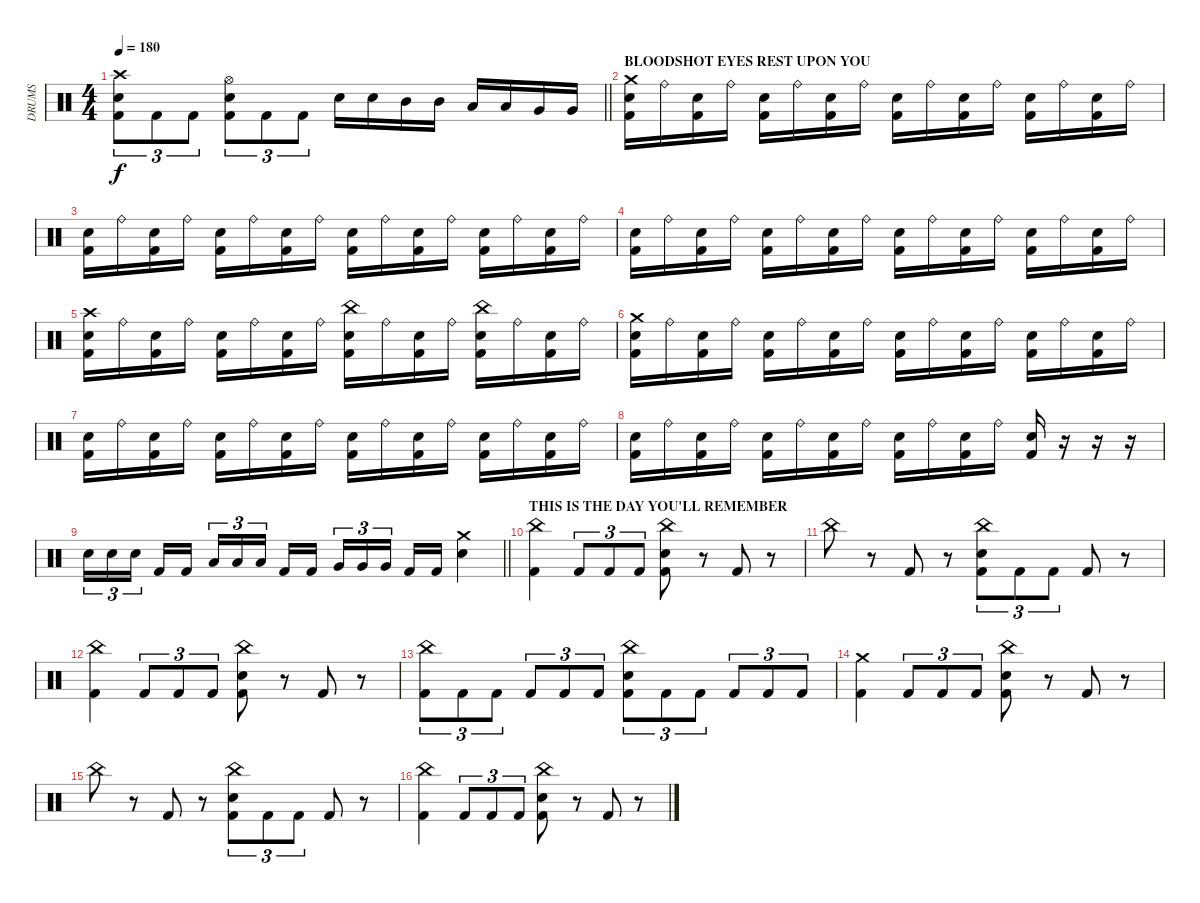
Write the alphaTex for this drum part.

\track ("DRUMS" "DRUMS") {instrument percussion}
\staff {score}
\articulation defaults
\ts (4 4)
\tempo 180
\clef neutral
\barLineRight lightlight
\ks c
("Crash high (hit)" "Electric Snare (hit)" "Kick (hit) 2").8{tu (3 2) dy f} "Kick (hit) 2".8{tu (3 2)} "Kick (hit) 2".8{tu (3 2)} ("Hi-Hat (open)" "Electric Snare (hit)" "Kick (hit) 2").8{tu (3 2)} "Kick (hit) 2".8{tu (3 2)} "Kick (hit) 2".8{tu (3 2)} "Electric Snare (hit)".16 "Electric Snare (hit)".16 "Mid Tom (hit)".16 "Mid Tom (hit)".16 "Low Tom (hit)".16 "Low Tom (hit)".16 "Very Low Tom (hit)".16 "Very Low Tom (hit)".16 |
\section ("" "BLOODSHOT EYES REST UPON YOU")
("Crash medium (hit)" "Electric Snare (hit)" "Kick (hit) 2").16 "Ride (bell)".16 ("Electric Snare (hit)" "Kick (hit) 2").16 "Ride (bell)".16 ("Electric Snare (hit)" "Kick (hit) 2").16 "Ride (bell)".16 ("Electric Snare (hit)" "Kick (hit) 2").16 "Ride (bell)".16 ("Electric Snare (hit)" "Kick (hit) 2").16 "Ride (bell)".16 ("Electric Snare (hit)" "Kick (hit) 2").16 "Ride (bell)".16 ("Electric Snare (hit)" "Kick (hit) 2").16 "Ride (bell)".16 ("Electric Snare (hit)" "Kick (hit) 2").16 "Ride (bell)".16 |
("Electric Snare (hit)" "Kick (hit) 2").16 "Ride (bell)".16 ("Electric Snare (hit)" "Kick (hit) 2").16 "Ride (bell)".16 ("Electric Snare (hit)" "Kick (hit) 2").16 "Ride (bell)".16 ("Electric Snare (hit)" "Kick (hit) 2").16 "Ride (bell)".16 ("Electric Snare (hit)" "Kick (hit) 2").16 "Ride (bell)".16 ("Electric Snare (hit)" "Kick (hit) 2").16 "Ride (bell)".16 ("Electric Snare (hit)" "Kick (hit) 2").16 "Ride (bell)".16 ("Electric Snare (hit)" "Kick (hit) 2").16 "Ride (bell)".16 |
("Electric Snare (hit)" "Kick (hit) 2").16 "Ride (bell)".16 ("Electric Snare (hit)" "Kick (hit) 2").16 "Ride (bell)".16 ("Electric Snare (hit)" "Kick (hit) 2").16 "Ride (bell)".16 ("Electric Snare (hit)" "Kick (hit) 2").16 "Ride (bell)".16 ("Electric Snare (hit)" "Kick (hit) 2").16 "Ride (bell)".16 ("Electric Snare (hit)" "Kick (hit) 2").16 "Ride (bell)".16 ("Electric Snare (hit)" "Kick (hit) 2").16 "Ride (bell)".16 ("Electric Snare (hit)" "Kick (hit) 2").16 "Ride (bell)".16 |
("Crash high (hit)" "Electric Snare (hit)" "Kick (hit) 2").16 "Ride (bell)".16 ("Electric Snare (hit)" "Kick (hit) 2").16 "Ride (bell)".16 ("Electric Snare (hit)" "Kick (hit) 2").16 "Ride (bell)".16 ("Electric Snare (hit)" "Kick (hit) 2").16 "Ride (bell)".16 ("China (hit)" "Electric Snare (hit)" "Kick (hit) 2").16 "Ride (bell)".16 ("Electric Snare (hit)" "Kick (hit) 2").16 "Ride (bell)".16 ("China (hit)" "Electric Snare (hit)" "Kick (hit) 2").16 "Ride (bell)".16 ("Electric Snare (hit)" "Kick (hit) 2").16 "Ride (bell)".16 |
("Crash medium (hit)" "Electric Snare (hit)" "Kick (hit) 2").16 "Ride (bell)".16 ("Electric Snare (hit)" "Kick (hit) 2").16 "Ride (bell)".16 ("Electric Snare (hit)" "Kick (hit) 2").16 "Ride (bell)".16 ("Electric Snare (hit)" "Kick (hit) 2").16 "Ride (bell)".16 ("Electric Snare (hit)" "Kick (hit) 2").16 "Ride (bell)".16 ("Electric Snare (hit)" "Kick (hit) 2").16 "Ride (bell)".16 ("Electric Snare (hit)" "Kick (hit) 2").16 "Ride (bell)".16 ("Electric Snare (hit)" "Kick (hit) 2").16 "Ride (bell)".16 |
("Electric Snare (hit)" "Kick (hit) 2").16 "Ride (bell)".16 ("Electric Snare (hit)" "Kick (hit) 2").16 "Ride (bell)".16 ("Electric Snare (hit)" "Kick (hit) 2").16 "Ride (bell)".16 ("Electric Snare (hit)" "Kick (hit) 2").16 "Ride (bell)".16 ("Electric Snare (hit)" "Kick (hit) 2").16 "Ride (bell)".16 ("Electric Snare (hit)" "Kick (hit) 2").16 "Ride (bell)".16 ("Electric Snare (hit)" "Kick (hit) 2").16 "Ride (bell)".16 ("Electric Snare (hit)" "Kick (hit) 2").16 "Ride (bell)".16 |
("Electric Snare (hit)" "Kick (hit) 2").16 "Ride (bell)".16 ("Electric Snare (hit)" "Kick (hit) 2").16 "Ride (bell)".16 ("Electric Snare (hit)" "Kick (hit) 2").16 "Ride (bell)".16 ("Electric Snare (hit)" "Kick (hit) 2").16 "Ride (bell)".16 ("Electric Snare (hit)" "Kick (hit) 2").16 "Ride (bell)".16 ("Electric Snare (hit)" "Kick (hit) 2").16 "Ride (bell)".16 ("Electric Snare (hit)" "Kick (hit) 2").16 r.16 r.16 r.16 |
\barLineRight lightlight "Electric Snare (hit)".16{tu (3 2)} "Electric Snare (hit)".16{tu (3 2)} "Electric Snare (hit)".16{tu (3 2) beam splitsecondary} "Kick (hit) 2".16 "Kick (hit) 2".16 "Low Tom (hit)".16{tu (3 2)} "Low Tom (hit)".16{tu (3 2)} "Low Tom (hit)".16{tu (3 2) beam splitsecondary} "Kick (hit) 2".16 "Kick (hit) 2".16 "Very Low Tom (hit)".16{tu (3 2)} "Very Low Tom (hit)".16{tu (3 2)} "Very Low Tom (hit)".16{tu (3 2) beam splitsecondary} "Kick (hit) 2".16 "Kick (hit) 2".16
("Crash medium (hit)" "Electric Snare (hit)").4 |
\section ("" "THIS IS THE DAY YOU'LL REMEMBER")
("China (hit)" "Kick (hit) 2").4 "Kick (hit) 2".8{tu (3 2)} "Kick (hit) 2".8{tu (3 2)} "Kick (hit) 2".8{tu (3 2)} ("China (hit)" "Electric Snare (hit)" "Kick (hit) 2").8 r.8 "Kick (hit) 2".8 r.8 |
"China (hit)".8 r.8 "Kick (hit) 2".8 r.8 ("China (hit)" "Electric Snare (hit)" "Kick (hit) 2").8{tu (3 2)} "Kick (hit) 2".8{tu (3 2)} "Kick (hit) 2".8{tu (3 2)} "Kick (hit) 2".8 r.8 |
("China (hit)" "Kick (hit) 2").4 "Kick (hit) 2".8{tu (3 2)} "Kick (hit) 2".8{tu (3 2)} "Kick (hit) 2".8{tu (3 2)} ("China (hit)" "Electric Snare (hit)" "Kick (hit) 2").8 r.8 "Kick (hit) 2".8 r.8 |
("China (hit)" "Kick (hit) 2").8{tu (3 2)} "Kick (hit) 2".8{tu (3 2)} "Kick (hit) 2".8{tu (3 2)} "Kick (hit) 2".8{tu (3 2)} "Kick (hit) 2".8{tu (3 2)} "Kick (hit) 2".8{tu (3 2)} ("China (hit)" "Electric Snare (hit)" "Kick (hit) 2").8{tu (3 2)} "Kick (hit) 2".8{tu (3 2)} "Kick (hit) 2".8{tu (3 2)} "Kick (hit) 2".8{tu (3 2)} "Kick (hit) 2".8{tu (3 2)} "Kick (hit) 2".8{tu (3 2)} |
("Crash medium (hit)" "Kick (hit) 2").4 "Kick (hit) 2".8{tu (3 2)} "Kick (hit) 2".8{tu (3 2)} "Kick (hit) 2".8{tu (3 2)} ("China (hit)" "Electric Snare (hit)" "Kick (hit) 2").8 r.8 "Kick (hit) 2".8 r.8 |
"China (hit)".8 r.8 "Kick (hit) 2".8 r.8 ("China (hit)" "Electric Snare (hit)" "Kick (hit) 2").8{tu (3 2)} "Kick (hit) 2".8{tu (3 2)} "Kick (hit) 2".8{tu (3 2)} "Kick (hit) 2".8 r.8 |
("China (hit)" "Kick (hit) 2").4 "Kick (hit) 2".8{tu (3 2)} "Kick (hit) 2".8{tu (3 2)} "Kick (hit) 2".8{tu (3 2)} ("China (hit)" "Electric Snare (hit)" "Kick (hit) 2").8 r.8 "Kick (hit) 2".8 r.8
